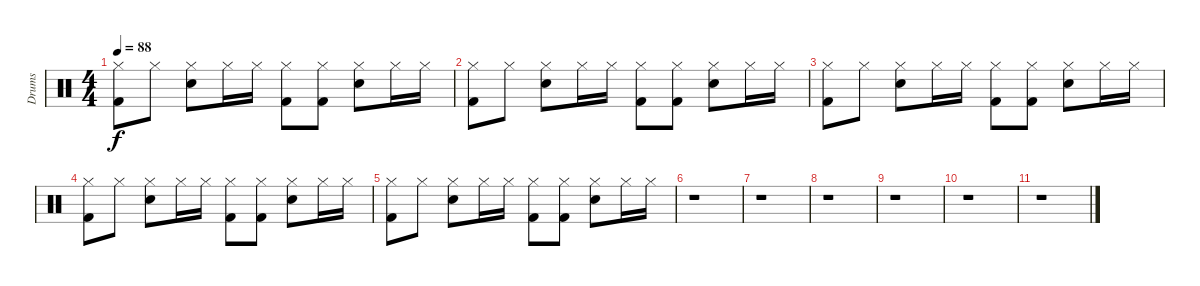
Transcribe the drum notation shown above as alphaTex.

\track ("Drums" "Drums") {instrument percussion}
\staff {score}
\articulation defaults
\ts (4 4)
\tempo 88
\clef neutral
\ks c
("Hi-Hat (closed)" "Kick (hit) 2").8{dy f} "Hi-Hat (closed)".8 ("Hi-Hat (closed)" "Electric Snare (hit)").8 "Hi-Hat (closed)".16 "Hi-Hat (closed)".16 ("Hi-Hat (closed)" "Kick (hit) 2").8 ("Hi-Hat (closed)" "Kick (hit) 2").8 ("Hi-Hat (closed)" "Electric Snare (hit)").8 "Hi-Hat (closed)".16 "Hi-Hat (closed)".16 |
("Hi-Hat (closed)" "Kick (hit) 2").8 "Hi-Hat (closed)".8 ("Hi-Hat (closed)" "Electric Snare (hit)").8 "Hi-Hat (closed)".16 "Hi-Hat (closed)".16 ("Hi-Hat (closed)" "Kick (hit) 2").8 ("Hi-Hat (closed)" "Kick (hit) 2").8 ("Hi-Hat (closed)" "Electric Snare (hit)").8 "Hi-Hat (closed)".16 "Hi-Hat (closed)".16 |
("Hi-Hat (closed)" "Kick (hit) 2").8 "Hi-Hat (closed)".8 ("Hi-Hat (closed)" "Electric Snare (hit)").8 "Hi-Hat (closed)".16 "Hi-Hat (closed)".16 ("Hi-Hat (closed)" "Kick (hit) 2").8 ("Hi-Hat (closed)" "Kick (hit) 2").8 ("Hi-Hat (closed)" "Electric Snare (hit)").8 "Hi-Hat (closed)".16 "Hi-Hat (closed)".16 |
("Hi-Hat (closed)" "Kick (hit) 2").8 "Hi-Hat (closed)".8 ("Hi-Hat (closed)" "Electric Snare (hit)").8 "Hi-Hat (closed)".16 "Hi-Hat (closed)".16 ("Hi-Hat (closed)" "Kick (hit) 2").8 ("Hi-Hat (closed)" "Kick (hit) 2").8 ("Hi-Hat (closed)" "Electric Snare (hit)").8 "Hi-Hat (closed)".16 "Hi-Hat (closed)".16 |
("Hi-Hat (closed)" "Kick (hit) 2").8 "Hi-Hat (closed)".8 ("Hi-Hat (closed)" "Electric Snare (hit)").8 "Hi-Hat (closed)".16 "Hi-Hat (closed)".16 ("Hi-Hat (closed)" "Kick (hit) 2").8 ("Hi-Hat (closed)" "Kick (hit) 2").8 ("Hi-Hat (closed)" "Electric Snare (hit)").8 "Hi-Hat (closed)".16 "Hi-Hat (closed)".16 |
r.1 |
r.1 |
r.1 |
r.1 |
r.1 |
r.1
